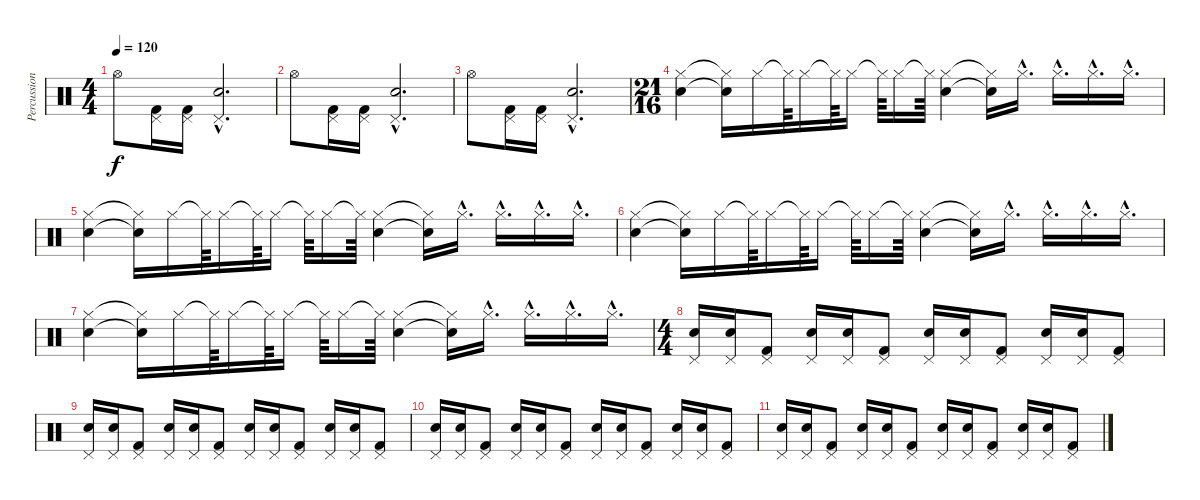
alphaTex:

\track ("Percussions" "Percussion") {instrument percussion}
\staff {score}
\articulation defaults
\ts (4 4)
\tempo 120
\clef neutral
\ks c "Hi-Hat (open)".8{dy f}
("Pedal Hi-Hat (hit)" "Kick (hit) 2").16 ("Pedal Hi-Hat (hit)" "Kick (hit) 2").16 ("Pedal Hi-Hat (hit)"{hac} "Snare (hit) 2"{hac}).2{d} |
"Hi-Hat (open)".8 ("Pedal Hi-Hat (hit)" "Kick (hit) 2").16 ("Pedal Hi-Hat (hit)" "Kick (hit) 2").16 ("Pedal Hi-Hat (hit)"{hac} "Snare (hit) 2"{hac}).2{d} |
"Hi-Hat (open)".8 ("Pedal Hi-Hat (hit)" "Kick (hit) 2").16 ("Pedal Hi-Hat (hit)" "Kick (hit) 2").16 ("Pedal Hi-Hat (hit)"{hac} "Snare (hit) 2"{hac}).2{d} |
\ts (21 16)
("Hi-Hat (closed)" "Snare (hit) 2").4 ("Hi-Hat (closed)"{t} "Snare (hit) 2"{t}).16 "Hi-Hat (closed)".16 "Hi-Hat (closed)"{t}.64 "Hi-Hat (closed)".16 "Hi-Hat (closed)"{t}.64 "Hi-Hat (closed)".16 "Hi-Hat (closed)"{t}.64 "Hi-Hat (closed)".16 "Hi-Hat (closed)"{t}.64 ("Hi-Hat (closed)" "Snare (hit) 2").4 ("Hi-Hat (closed)"{t} "Snare (hit) 2"{t}).16 "Hi-Hat (closed)"{hac}.16{d} "Hi-Hat (closed)"{hac}.16{d} "Hi-Hat (closed)"{hac}.16{d} "Hi-Hat (closed)"{hac}.16{d} |
("Hi-Hat (closed)" "Snare (hit) 2").4 ("Hi-Hat (closed)"{t} "Snare (hit) 2"{t}).16 "Hi-Hat (closed)".16 "Hi-Hat (closed)"{t}.64 "Hi-Hat (closed)".16 "Hi-Hat (closed)"{t}.64 "Hi-Hat (closed)".16 "Hi-Hat (closed)"{t}.64 "Hi-Hat (closed)".16 "Hi-Hat (closed)"{t}.64 ("Hi-Hat (closed)" "Snare (hit) 2").4 ("Hi-Hat (closed)"{t} "Snare (hit) 2"{t}).16 "Hi-Hat (closed)"{hac}.16{d} "Hi-Hat (closed)"{hac}.16{d} "Hi-Hat (closed)"{hac}.16{d} "Hi-Hat (closed)"{hac}.16{d} |
("Hi-Hat (closed)" "Snare (hit) 2").4 ("Hi-Hat (closed)"{t} "Snare (hit) 2"{t}).16 "Hi-Hat (closed)".16 "Hi-Hat (closed)"{t}.64 "Hi-Hat (closed)".16 "Hi-Hat (closed)"{t}.64 "Hi-Hat (closed)".16 "Hi-Hat (closed)"{t}.64 "Hi-Hat (closed)".16 "Hi-Hat (closed)"{t}.64 ("Hi-Hat (closed)" "Snare (hit) 2").4 ("Hi-Hat (closed)"{t} "Snare (hit) 2"{t}).16 "Hi-Hat (closed)"{hac}.16{d} "Hi-Hat (closed)"{hac}.16{d} "Hi-Hat (closed)"{hac}.16{d} "Hi-Hat (closed)"{hac}.16{d} |
("Hi-Hat (closed)" "Snare (hit) 2").4 ("Hi-Hat (closed)"{t} "Snare (hit) 2"{t}).16 "Hi-Hat (closed)".16 "Hi-Hat (closed)"{t}.64 "Hi-Hat (closed)".16 "Hi-Hat (closed)"{t}.64 "Hi-Hat (closed)".16 "Hi-Hat (closed)"{t}.64 "Hi-Hat (closed)".16 "Hi-Hat (closed)"{t}.64 ("Hi-Hat (closed)" "Snare (hit) 2").4 ("Hi-Hat (closed)"{t} "Snare (hit) 2"{t}).16 "Hi-Hat (closed)"{hac}.16{d} "Hi-Hat (closed)"{hac}.16{d} "Hi-Hat (closed)"{hac}.16{d} "Hi-Hat (closed)"{hac}.16{d} |
\ts (4 4)
("Pedal Hi-Hat (hit)" "Snare (hit) 2").16 ("Pedal Hi-Hat (hit)" "Snare (hit) 2").16 ("Pedal Hi-Hat (hit)" "Kick (hit) 2").8 ("Pedal Hi-Hat (hit)" "Snare (hit) 2").16 ("Pedal Hi-Hat (hit)" "Snare (hit) 2").16 ("Pedal Hi-Hat (hit)" "Kick (hit) 2").8 ("Pedal Hi-Hat (hit)" "Snare (hit) 2").16 ("Pedal Hi-Hat (hit)" "Snare (hit) 2").16 ("Pedal Hi-Hat (hit)" "Kick (hit) 2").8 ("Pedal Hi-Hat (hit)" "Snare (hit) 2").16 ("Pedal Hi-Hat (hit)" "Snare (hit) 2").16 ("Pedal Hi-Hat (hit)" "Kick (hit) 2").8 |
("Pedal Hi-Hat (hit)" "Snare (hit) 2").16 ("Pedal Hi-Hat (hit)" "Snare (hit) 2").16 ("Pedal Hi-Hat (hit)" "Kick (hit) 2").8 ("Pedal Hi-Hat (hit)" "Snare (hit) 2").16 ("Pedal Hi-Hat (hit)" "Snare (hit) 2").16 ("Pedal Hi-Hat (hit)" "Kick (hit) 2").8 ("Pedal Hi-Hat (hit)" "Snare (hit) 2").16 ("Pedal Hi-Hat (hit)" "Snare (hit) 2").16 ("Pedal Hi-Hat (hit)" "Kick (hit) 2").8 ("Pedal Hi-Hat (hit)" "Snare (hit) 2").16 ("Pedal Hi-Hat (hit)" "Snare (hit) 2").16 ("Pedal Hi-Hat (hit)" "Kick (hit) 2").8 |
("Pedal Hi-Hat (hit)" "Snare (hit) 2").16 ("Pedal Hi-Hat (hit)" "Snare (hit) 2").16 ("Pedal Hi-Hat (hit)" "Kick (hit) 2").8 ("Pedal Hi-Hat (hit)" "Snare (hit) 2").16 ("Pedal Hi-Hat (hit)" "Snare (hit) 2").16 ("Pedal Hi-Hat (hit)" "Kick (hit) 2").8 ("Pedal Hi-Hat (hit)" "Snare (hit) 2").16 ("Pedal Hi-Hat (hit)" "Snare (hit) 2").16 ("Pedal Hi-Hat (hit)" "Kick (hit) 2").8 ("Pedal Hi-Hat (hit)" "Snare (hit) 2").16 ("Pedal Hi-Hat (hit)" "Snare (hit) 2").16 ("Pedal Hi-Hat (hit)" "Kick (hit) 2").8 |
("Pedal Hi-Hat (hit)" "Snare (hit) 2").16 ("Pedal Hi-Hat (hit)" "Snare (hit) 2").16 ("Pedal Hi-Hat (hit)" "Kick (hit) 2").8 ("Pedal Hi-Hat (hit)" "Snare (hit) 2").16 ("Pedal Hi-Hat (hit)" "Snare (hit) 2").16 ("Pedal Hi-Hat (hit)" "Kick (hit) 2").8 ("Pedal Hi-Hat (hit)" "Snare (hit) 2").16 ("Pedal Hi-Hat (hit)" "Snare (hit) 2").16 ("Pedal Hi-Hat (hit)" "Kick (hit) 2").8 ("Pedal Hi-Hat (hit)" "Snare (hit) 2").16 ("Pedal Hi-Hat (hit)" "Snare (hit) 2").16 ("Pedal Hi-Hat (hit)" "Kick (hit) 2").8
